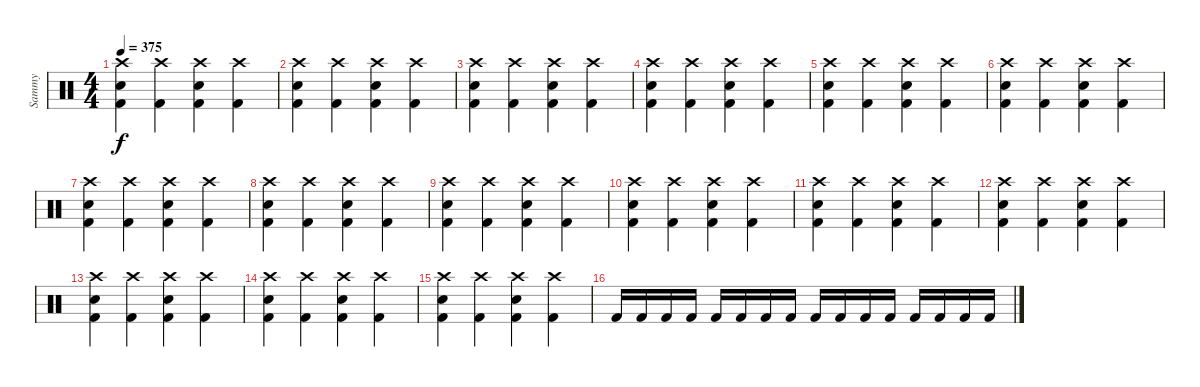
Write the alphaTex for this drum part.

\track ("Sammy" "Sammy") {instrument percussion}
\staff {score}
\articulation defaults
\ts (4 4)
\tempo 375
\clef neutral
\ks c
("Crash high (hit)" "Electric Snare (hit)" "Kick (hit) 2").4{dy f} ("Crash high (hit)" "Kick (hit) 2").4 ("Crash high (hit)" "Electric Snare (hit)" "Kick (hit) 2").4 ("Crash high (hit)" "Kick (hit) 2").4 |
("Crash high (hit)" "Electric Snare (hit)" "Kick (hit) 2").4 ("Crash high (hit)" "Kick (hit) 2").4 ("Crash high (hit)" "Electric Snare (hit)" "Kick (hit) 2").4 ("Crash high (hit)" "Kick (hit) 2").4 |
("Crash high (hit)" "Electric Snare (hit)" "Kick (hit) 2").4 ("Crash high (hit)" "Kick (hit) 2").4 ("Crash high (hit)" "Electric Snare (hit)" "Kick (hit) 2").4 ("Crash high (hit)" "Kick (hit) 2").4 |
("Crash high (hit)" "Electric Snare (hit)" "Kick (hit) 2").4 ("Crash high (hit)" "Kick (hit) 2").4 ("Crash high (hit)" "Electric Snare (hit)" "Kick (hit) 2").4 ("Crash high (hit)" "Kick (hit) 2").4 |
("Crash high (hit)" "Electric Snare (hit)" "Kick (hit) 2").4 ("Crash high (hit)" "Kick (hit) 2").4 ("Crash high (hit)" "Electric Snare (hit)" "Kick (hit) 2").4 ("Crash high (hit)" "Kick (hit) 2").4 |
("Crash high (hit)" "Electric Snare (hit)" "Kick (hit) 2").4 ("Crash high (hit)" "Kick (hit) 2").4 ("Crash high (hit)" "Electric Snare (hit)" "Kick (hit) 2").4 ("Crash high (hit)" "Kick (hit) 2").4 |
("Crash high (hit)" "Electric Snare (hit)" "Kick (hit) 2").4 ("Crash high (hit)" "Kick (hit) 2").4 ("Crash high (hit)" "Electric Snare (hit)" "Kick (hit) 2").4 ("Crash high (hit)" "Kick (hit) 2").4 |
("Crash high (hit)" "Electric Snare (hit)" "Kick (hit) 2").4 ("Crash high (hit)" "Kick (hit) 2").4 ("Crash high (hit)" "Electric Snare (hit)" "Kick (hit) 2").4 ("Crash high (hit)" "Kick (hit) 2").4 |
("Crash high (hit)" "Electric Snare (hit)" "Kick (hit) 2").4 ("Crash high (hit)" "Kick (hit) 2").4 ("Crash high (hit)" "Electric Snare (hit)" "Kick (hit) 2").4 ("Crash high (hit)" "Kick (hit) 2").4 |
("Crash high (hit)" "Electric Snare (hit)" "Kick (hit) 2").4 ("Crash high (hit)" "Kick (hit) 2").4 ("Crash high (hit)" "Electric Snare (hit)" "Kick (hit) 2").4 ("Crash high (hit)" "Kick (hit) 2").4 |
("Crash high (hit)" "Electric Snare (hit)" "Kick (hit) 2").4 ("Crash high (hit)" "Kick (hit) 2").4 ("Crash high (hit)" "Electric Snare (hit)" "Kick (hit) 2").4 ("Crash high (hit)" "Kick (hit) 2").4 |
("Crash high (hit)" "Electric Snare (hit)" "Kick (hit) 2").4 ("Crash high (hit)" "Kick (hit) 2").4 ("Crash high (hit)" "Electric Snare (hit)" "Kick (hit) 2").4 ("Crash high (hit)" "Kick (hit) 2").4 |
("Crash high (hit)" "Electric Snare (hit)" "Kick (hit) 2").4 ("Crash high (hit)" "Kick (hit) 2").4 ("Crash high (hit)" "Electric Snare (hit)" "Kick (hit) 2").4 ("Crash high (hit)" "Kick (hit) 2").4 |
("Crash high (hit)" "Electric Snare (hit)" "Kick (hit) 2").4 ("Crash high (hit)" "Kick (hit) 2").4 ("Crash high (hit)" "Electric Snare (hit)" "Kick (hit) 2").4 ("Crash high (hit)" "Kick (hit) 2").4 |
("Crash high (hit)" "Electric Snare (hit)" "Kick (hit) 2").4 ("Crash high (hit)" "Kick (hit) 2").4 ("Crash high (hit)" "Electric Snare (hit)" "Kick (hit) 2").4 ("Crash high (hit)" "Kick (hit) 2").4 |
"Kick (hit) 2".16 "Kick (hit) 2".16 "Kick (hit) 2".16 "Kick (hit) 2".16 "Kick (hit) 2".16 "Kick (hit) 2".16 "Kick (hit) 2".16 "Kick (hit) 2".16 "Kick (hit) 2".16 "Kick (hit) 2".16 "Kick (hit) 2".16 "Kick (hit) 2".16 "Kick (hit) 2".16 "Kick (hit) 2".16 "Kick (hit) 2".16 "Kick (hit) 2".16
